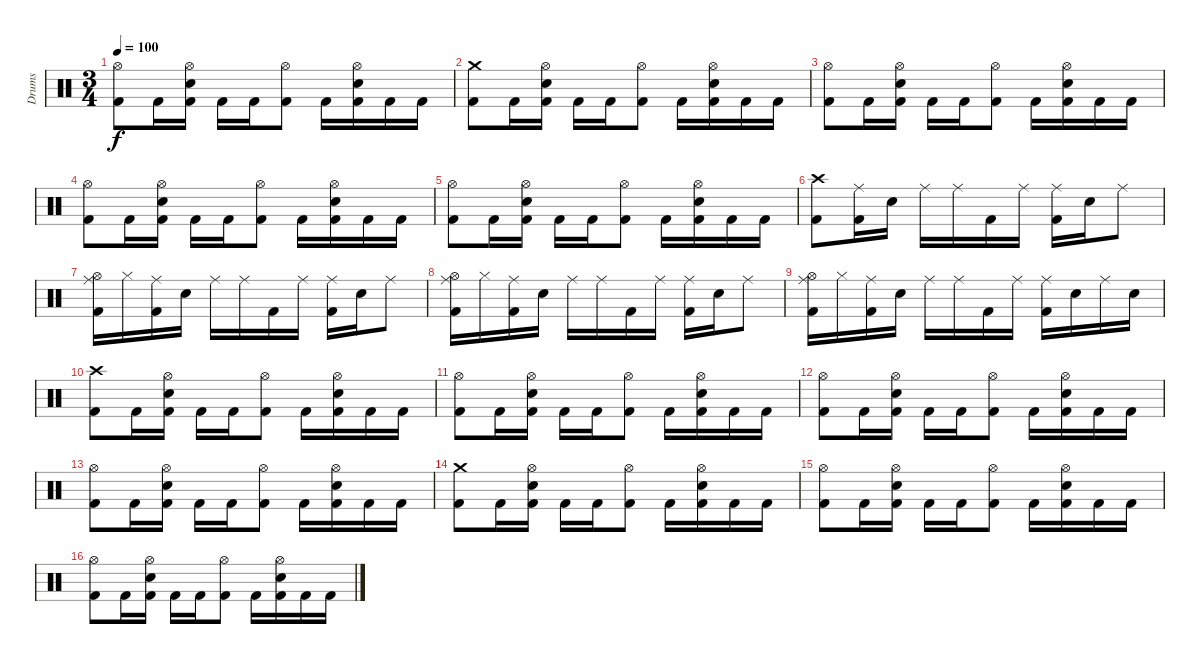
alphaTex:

\track ("Drums" "Drums") {instrument percussion}
\staff {score}
\articulation defaults
\ts (3 4)
\tempo 100
\clef neutral
\ks c
("Hi-Hat (open)" "Kick (hit) 2").8{dy f} "Kick (hit) 2".16 ("Hi-Hat (open)" "Electric Snare (hit)" "Kick (hit) 2").16 "Kick (hit) 2".16 "Kick (hit) 2".16 ("Hi-Hat (open)" "Kick (hit) 2").8 "Kick (hit) 2".16 ("Hi-Hat (open)" "Electric Snare (hit)" "Kick (hit) 2").16 "Kick (hit) 2".16 "Kick (hit) 2".16 |
("Crash medium (hit)" "Kick (hit) 2").8 "Kick (hit) 2".16 ("Hi-Hat (open)" "Electric Snare (hit)" "Kick (hit) 2").16 "Kick (hit) 2".16 "Kick (hit) 2".16 ("Hi-Hat (open)" "Kick (hit) 2").8 "Kick (hit) 2".16 ("Hi-Hat (open)" "Electric Snare (hit)" "Kick (hit) 2").16 "Kick (hit) 2".16 "Kick (hit) 2".16 |
("Hi-Hat (open)" "Kick (hit) 2").8 "Kick (hit) 2".16 ("Hi-Hat (open)" "Electric Snare (hit)" "Kick (hit) 2").16 "Kick (hit) 2".16 "Kick (hit) 2".16 ("Hi-Hat (open)" "Kick (hit) 2").8 "Kick (hit) 2".16 ("Hi-Hat (open)" "Electric Snare (hit)" "Kick (hit) 2").16 "Kick (hit) 2".16 "Kick (hit) 2".16 |
("Hi-Hat (open)" "Kick (hit) 2").8 "Kick (hit) 2".16 ("Hi-Hat (open)" "Electric Snare (hit)" "Kick (hit) 2").16 "Kick (hit) 2".16 "Kick (hit) 2".16 ("Hi-Hat (open)" "Kick (hit) 2").8 "Kick (hit) 2".16 ("Hi-Hat (open)" "Electric Snare (hit)" "Kick (hit) 2").16 "Kick (hit) 2".16 "Kick (hit) 2".16 |
("Hi-Hat (open)" "Kick (hit) 2").8 "Kick (hit) 2".16 ("Hi-Hat (open)" "Electric Snare (hit)" "Kick (hit) 2").16 "Kick (hit) 2".16 "Kick (hit) 2".16 ("Hi-Hat (open)" "Kick (hit) 2").8 "Kick (hit) 2".16 ("Hi-Hat (open)" "Electric Snare (hit)" "Kick (hit) 2").16 "Kick (hit) 2".16 "Kick (hit) 2".16 |
("Crash high (hit)" "Kick (hit) 2").8 ("Ride (middle)" "Kick (hit) 2").16 "Electric Snare (hit)".16 "Ride (middle)".16 "Ride (middle)".16 "Kick (hit) 2".16 "Ride (middle)".16 ("Ride (middle)" "Kick (hit) 2").16 "Electric Snare (hit)".16 "Ride (middle)".8 |
("Ride (middle)" "Hi-Hat (open)" "Kick (hit) 2").16 "Hi-Hat (closed)".16 ("Ride (middle)" "Kick (hit) 2").16 "Electric Snare (hit)".16 "Ride (middle)".16 "Ride (middle)".16 "Kick (hit) 2".16 "Ride (middle)".16 ("Ride (middle)" "Kick (hit) 2").16 "Electric Snare (hit)".16 "Ride (middle)".8 |
("Ride (middle)" "Hi-Hat (open)" "Kick (hit) 2").16 "Hi-Hat (closed)".16 ("Ride (middle)" "Kick (hit) 2").16 "Electric Snare (hit)".16 "Ride (middle)".16 "Ride (middle)".16 "Kick (hit) 2".16 "Ride (middle)".16 ("Ride (middle)" "Kick (hit) 2").16 "Electric Snare (hit)".16 "Ride (middle)".8 |
("Ride (middle)" "Hi-Hat (open)" "Kick (hit) 2").16 "Hi-Hat (closed)".16 ("Ride (middle)" "Kick (hit) 2").16 "Electric Snare (hit)".16 "Ride (middle)".16 "Ride (middle)".16 "Kick (hit) 2".16 "Ride (middle)".16 ("Ride (middle)" "Kick (hit) 2").16 "Electric Snare (hit)".16 "Ride (middle)".16 "Electric Snare (hit)".16 |
("Crash high (hit)" "Kick (hit) 2").8 "Kick (hit) 2".16 ("Hi-Hat (open)" "Electric Snare (hit)" "Kick (hit) 2").16 "Kick (hit) 2".16 "Kick (hit) 2".16 ("Hi-Hat (open)" "Kick (hit) 2").8 "Kick (hit) 2".16 ("Hi-Hat (open)" "Electric Snare (hit)" "Kick (hit) 2").16 "Kick (hit) 2".16 "Kick (hit) 2".16 |
("Hi-Hat (open)" "Kick (hit) 2").8 "Kick (hit) 2".16 ("Hi-Hat (open)" "Electric Snare (hit)" "Kick (hit) 2").16 "Kick (hit) 2".16 "Kick (hit) 2".16 ("Hi-Hat (open)" "Kick (hit) 2").8 "Kick (hit) 2".16 ("Hi-Hat (open)" "Electric Snare (hit)" "Kick (hit) 2").16 "Kick (hit) 2".16 "Kick (hit) 2".16 |
("Hi-Hat (open)" "Kick (hit) 2").8 "Kick (hit) 2".16 ("Hi-Hat (open)" "Electric Snare (hit)" "Kick (hit) 2").16 "Kick (hit) 2".16 "Kick (hit) 2".16 ("Hi-Hat (open)" "Kick (hit) 2").8 "Kick (hit) 2".16 ("Hi-Hat (open)" "Electric Snare (hit)" "Kick (hit) 2").16 "Kick (hit) 2".16 "Kick (hit) 2".16 |
("Hi-Hat (open)" "Kick (hit) 2").8 "Kick (hit) 2".16 ("Hi-Hat (open)" "Electric Snare (hit)" "Kick (hit) 2").16 "Kick (hit) 2".16 "Kick (hit) 2".16 ("Hi-Hat (open)" "Kick (hit) 2").8 "Kick (hit) 2".16 ("Hi-Hat (open)" "Electric Snare (hit)" "Kick (hit) 2").16 "Kick (hit) 2".16 "Kick (hit) 2".16 |
("Crash medium (hit)" "Kick (hit) 2").8 "Kick (hit) 2".16 ("Hi-Hat (open)" "Electric Snare (hit)" "Kick (hit) 2").16 "Kick (hit) 2".16 "Kick (hit) 2".16 ("Hi-Hat (open)" "Kick (hit) 2").8 "Kick (hit) 2".16 ("Hi-Hat (open)" "Electric Snare (hit)" "Kick (hit) 2").16 "Kick (hit) 2".16 "Kick (hit) 2".16 |
("Hi-Hat (open)" "Kick (hit) 2").8 "Kick (hit) 2".16 ("Hi-Hat (open)" "Electric Snare (hit)" "Kick (hit) 2").16 "Kick (hit) 2".16 "Kick (hit) 2".16 ("Hi-Hat (open)" "Kick (hit) 2").8 "Kick (hit) 2".16 ("Hi-Hat (open)" "Electric Snare (hit)" "Kick (hit) 2").16 "Kick (hit) 2".16 "Kick (hit) 2".16 |
("Hi-Hat (open)" "Kick (hit) 2").8 "Kick (hit) 2".16 ("Hi-Hat (open)" "Electric Snare (hit)" "Kick (hit) 2").16 "Kick (hit) 2".16 "Kick (hit) 2".16 ("Hi-Hat (open)" "Kick (hit) 2").8 "Kick (hit) 2".16 ("Hi-Hat (open)" "Electric Snare (hit)" "Kick (hit) 2").16 "Kick (hit) 2".16 "Kick (hit) 2".16
